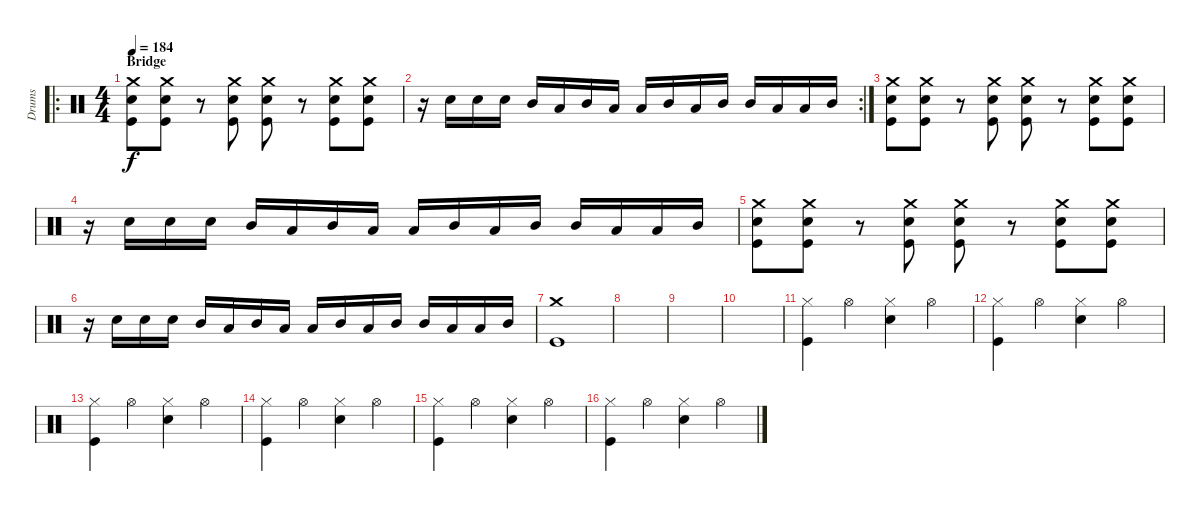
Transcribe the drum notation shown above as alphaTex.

\track ("Drums" "Drums") {instrument percussion}
\staff {score}
\articulation defaults
\ro
\ts (4 4)
\section ("" "Bridge")
\tempo 184
\clef neutral
\ks c
("Crash medium (hit)" "Electric Snare (hit)" "Kick (hit)").8{dy f} ("Crash medium (hit)" "Electric Snare (hit)" "Kick (hit)").8 r.8 ("Crash medium (hit)" "Electric Snare (hit)" "Kick (hit)").8 ("Crash medium (hit)" "Electric Snare (hit)" "Kick (hit)").8 r.8 ("Crash medium (hit)" "Electric Snare (hit)" "Kick (hit)").8 ("Crash medium (hit)" "Electric Snare (hit)" "Kick (hit)").8 |
\rc 2
r.16 "Electric Snare (hit)".16 "Electric Snare (hit)".16 "Electric Snare (hit)".16 "Mid Tom (hit)".16 "Low Tom (hit)".16 "Mid Tom (hit)".16 "Low Tom (hit)".16 "Low Tom (hit)".16 "Mid Tom (hit)".16 "Low Tom (hit)".16 "Mid Tom (hit)".16 "Mid Tom (hit)".16 "Low Tom (hit)".16 "Low Tom (hit)".16 "Mid Tom (hit)".16 |
("Crash medium (hit)" "Electric Snare (hit)" "Kick (hit)").8 ("Crash medium (hit)" "Electric Snare (hit)" "Kick (hit)").8 r.8 ("Crash medium (hit)" "Electric Snare (hit)" "Kick (hit)").8 ("Crash medium (hit)" "Electric Snare (hit)" "Kick (hit)").8 r.8 ("Crash medium (hit)" "Electric Snare (hit)" "Kick (hit)").8 ("Crash medium (hit)" "Electric Snare (hit)" "Kick (hit)").8 |
r.16 "Electric Snare (hit)".16 "Electric Snare (hit)".16 "Electric Snare (hit)".16 "Mid Tom (hit)".16 "Low Tom (hit)".16 "Mid Tom (hit)".16 "Low Tom (hit)".16 "Low Tom (hit)".16 "Mid Tom (hit)".16 "Low Tom (hit)".16 "Mid Tom (hit)".16 "Mid Tom (hit)".16 "Low Tom (hit)".16 "Low Tom (hit)".16 "Mid Tom (hit)".16 |
("Crash medium (hit)" "Electric Snare (hit)" "Kick (hit)").8 ("Crash medium (hit)" "Electric Snare (hit)" "Kick (hit)").8 r.8 ("Crash medium (hit)" "Electric Snare (hit)" "Kick (hit)").8 ("Crash medium (hit)" "Electric Snare (hit)" "Kick (hit)").8 r.8 ("Crash medium (hit)" "Electric Snare (hit)" "Kick (hit)").8 ("Crash medium (hit)" "Electric Snare (hit)" "Kick (hit)").8 |
r.16 "Electric Snare (hit)".16 "Electric Snare (hit)".16 "Electric Snare (hit)".16 "Mid Tom (hit)".16 "Low Tom (hit)".16 "Mid Tom (hit)".16 "Low Tom (hit)".16 "Low Tom (hit)".16 "Mid Tom (hit)".16 "Low Tom (hit)".16 "Mid Tom (hit)".16 "Mid Tom (hit)".16 "Low Tom (hit)".16 "Low Tom (hit)".16 "Mid Tom (hit)".16 |
("Crash medium (hit)" "Kick (hit)").1 |
|
|
|
("Hi-Hat (closed)" "Kick (hit)").4 "Hi-Hat (open)".4 ("Hi-Hat (closed)" "Electric Snare (hit)").4 "Hi-Hat (open)".4 |
("Hi-Hat (closed)" "Kick (hit)").4 "Hi-Hat (open)".4 ("Hi-Hat (closed)" "Electric Snare (hit)").4 "Hi-Hat (open)".4 |
("Hi-Hat (closed)" "Kick (hit)").4 "Hi-Hat (open)".4 ("Hi-Hat (closed)" "Electric Snare (hit)").4 "Hi-Hat (open)".4 |
("Hi-Hat (closed)" "Kick (hit)").4 "Hi-Hat (open)".4 ("Hi-Hat (closed)" "Electric Snare (hit)").4 "Hi-Hat (open)".4 |
("Hi-Hat (closed)" "Kick (hit)").4 "Hi-Hat (open)".4 ("Hi-Hat (closed)" "Electric Snare (hit)").4 "Hi-Hat (open)".4 |
("Hi-Hat (closed)" "Kick (hit)").4 "Hi-Hat (open)".4 ("Hi-Hat (closed)" "Electric Snare (hit)").4 "Hi-Hat (open)".4
